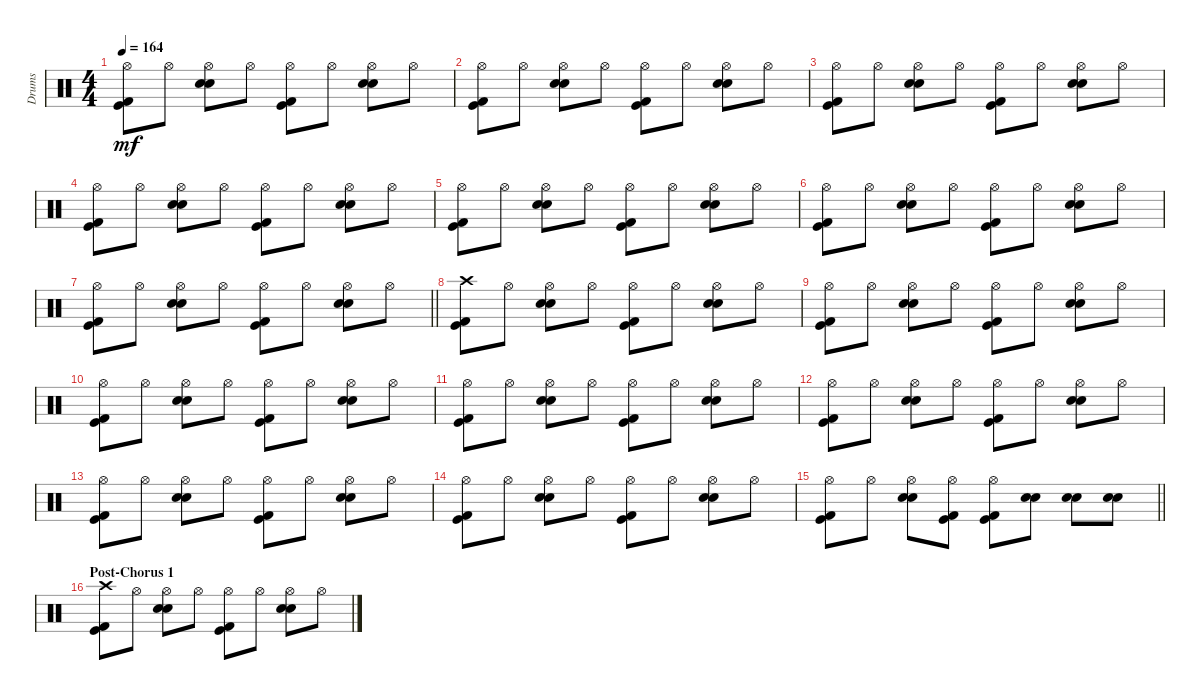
\track ("Drums" "Drums") {instrument percussion}
\staff {score}
\articulation defaults
\ts (4 4)
\tempo 164
\clef neutral
\ks c
("Hi-Hat (open)" "Kick (hit) 2" "Kick (hit)").8{dy mf} "Hi-Hat (open)".8 ("Hi-Hat (open)" "Snare (hit) 2" "Electric Snare (hit)").8 "Hi-Hat (open)".8 ("Hi-Hat (open)" "Kick (hit) 2" "Kick (hit)").8 "Hi-Hat (open)".8 ("Hi-Hat (open)" "Snare (hit) 2" "Electric Snare (hit)").8 "Hi-Hat (open)".8 |
("Hi-Hat (open)" "Kick (hit) 2" "Kick (hit)").8 "Hi-Hat (open)".8 ("Hi-Hat (open)" "Snare (hit) 2" "Electric Snare (hit)").8 "Hi-Hat (open)".8 ("Hi-Hat (open)" "Kick (hit) 2" "Kick (hit)").8 "Hi-Hat (open)".8 ("Hi-Hat (open)" "Snare (hit) 2" "Electric Snare (hit)").8 "Hi-Hat (open)".8 |
("Hi-Hat (open)" "Kick (hit) 2" "Kick (hit)").8 "Hi-Hat (open)".8 ("Hi-Hat (open)" "Snare (hit) 2" "Electric Snare (hit)").8 "Hi-Hat (open)".8 ("Hi-Hat (open)" "Kick (hit) 2" "Kick (hit)").8 "Hi-Hat (open)".8 ("Hi-Hat (open)" "Snare (hit) 2" "Electric Snare (hit)").8 "Hi-Hat (open)".8 |
("Hi-Hat (open)" "Kick (hit) 2" "Kick (hit)").8 "Hi-Hat (open)".8 ("Hi-Hat (open)" "Snare (hit) 2" "Electric Snare (hit)").8 "Hi-Hat (open)".8 ("Hi-Hat (open)" "Kick (hit) 2" "Kick (hit)").8 "Hi-Hat (open)".8 ("Hi-Hat (open)" "Snare (hit) 2" "Electric Snare (hit)").8 "Hi-Hat (open)".8 |
("Hi-Hat (open)" "Kick (hit) 2" "Kick (hit)").8 "Hi-Hat (open)".8 ("Hi-Hat (open)" "Snare (hit) 2" "Electric Snare (hit)").8 "Hi-Hat (open)".8 ("Hi-Hat (open)" "Kick (hit) 2" "Kick (hit)").8 "Hi-Hat (open)".8 ("Hi-Hat (open)" "Snare (hit) 2" "Electric Snare (hit)").8 "Hi-Hat (open)".8 |
("Hi-Hat (open)" "Kick (hit) 2" "Kick (hit)").8 "Hi-Hat (open)".8 ("Hi-Hat (open)" "Snare (hit) 2" "Electric Snare (hit)").8 "Hi-Hat (open)".8 ("Hi-Hat (open)" "Kick (hit) 2" "Kick (hit)").8 "Hi-Hat (open)".8 ("Hi-Hat (open)" "Snare (hit) 2" "Electric Snare (hit)").8 "Hi-Hat (open)".8 |
\barLineRight lightlight
("Hi-Hat (open)" "Kick (hit) 2" "Kick (hit)").8 "Hi-Hat (open)".8 ("Hi-Hat (open)" "Snare (hit) 2" "Electric Snare (hit)").8 "Hi-Hat (open)".8 ("Hi-Hat (open)" "Kick (hit) 2" "Kick (hit)").8 "Hi-Hat (open)".8 ("Hi-Hat (open)" "Snare (hit) 2" "Electric Snare (hit)").8 "Hi-Hat (open)".8 |
("Crash high (hit)" "Kick (hit) 2" "Kick (hit)").8 "Hi-Hat (open)".8 ("Hi-Hat (open)" "Snare (hit) 2" "Electric Snare (hit)").8 "Hi-Hat (open)".8 ("Hi-Hat (open)" "Kick (hit) 2" "Kick (hit)").8 "Hi-Hat (open)".8 ("Hi-Hat (open)" "Snare (hit) 2" "Electric Snare (hit)").8 "Hi-Hat (open)".8 |
("Hi-Hat (open)" "Kick (hit) 2" "Kick (hit)").8 "Hi-Hat (open)".8 ("Hi-Hat (open)" "Snare (hit) 2" "Electric Snare (hit)").8 "Hi-Hat (open)".8 ("Hi-Hat (open)" "Kick (hit) 2" "Kick (hit)").8 "Hi-Hat (open)".8 ("Hi-Hat (open)" "Snare (hit) 2" "Electric Snare (hit)").8 "Hi-Hat (open)".8 |
("Hi-Hat (open)" "Kick (hit) 2" "Kick (hit)").8 "Hi-Hat (open)".8 ("Hi-Hat (open)" "Snare (hit) 2" "Electric Snare (hit)").8 "Hi-Hat (open)".8 ("Hi-Hat (open)" "Kick (hit) 2" "Kick (hit)").8 "Hi-Hat (open)".8 ("Hi-Hat (open)" "Snare (hit) 2" "Electric Snare (hit)").8 "Hi-Hat (open)".8 |
("Hi-Hat (open)" "Kick (hit) 2" "Kick (hit)").8 "Hi-Hat (open)".8 ("Hi-Hat (open)" "Snare (hit) 2" "Electric Snare (hit)").8 "Hi-Hat (open)".8 ("Hi-Hat (open)" "Kick (hit) 2" "Kick (hit)").8 "Hi-Hat (open)".8 ("Hi-Hat (open)" "Snare (hit) 2" "Electric Snare (hit)").8 "Hi-Hat (open)".8 |
("Hi-Hat (open)" "Kick (hit) 2" "Kick (hit)").8 "Hi-Hat (open)".8 ("Hi-Hat (open)" "Snare (hit) 2" "Electric Snare (hit)").8 "Hi-Hat (open)".8 ("Hi-Hat (open)" "Kick (hit) 2" "Kick (hit)").8 "Hi-Hat (open)".8 ("Hi-Hat (open)" "Snare (hit) 2" "Electric Snare (hit)").8 "Hi-Hat (open)".8 |
("Hi-Hat (open)" "Kick (hit) 2" "Kick (hit)").8 "Hi-Hat (open)".8 ("Hi-Hat (open)" "Snare (hit) 2" "Electric Snare (hit)").8 "Hi-Hat (open)".8 ("Hi-Hat (open)" "Kick (hit) 2" "Kick (hit)").8 "Hi-Hat (open)".8 ("Hi-Hat (open)" "Snare (hit) 2" "Electric Snare (hit)").8 "Hi-Hat (open)".8 |
("Hi-Hat (open)" "Kick (hit) 2" "Kick (hit)").8 "Hi-Hat (open)".8 ("Hi-Hat (open)" "Snare (hit) 2" "Electric Snare (hit)").8 "Hi-Hat (open)".8 ("Hi-Hat (open)" "Kick (hit) 2" "Kick (hit)").8 "Hi-Hat (open)".8 ("Hi-Hat (open)" "Snare (hit) 2" "Electric Snare (hit)").8 "Hi-Hat (open)".8 |
\barLineRight lightlight
("Hi-Hat (open)" "Kick (hit) 2" "Kick (hit)").8 "Hi-Hat (open)".8 ("Hi-Hat (open)" "Snare (hit) 2" "Electric Snare (hit)").8 ("Hi-Hat (open)" "Kick (hit) 2" "Kick (hit)").8 ("Hi-Hat (open)" "Kick (hit) 2" "Kick (hit)").8 ("Snare (hit) 2" "Electric Snare (hit)").8 ("Snare (hit) 2" "Electric Snare (hit)").8 ("Snare (hit) 2" "Electric Snare (hit)").8 |
\section ("" "Post-Chorus 1")
("Crash high (hit)" "Kick (hit) 2" "Kick (hit)").8 "Hi-Hat (open)".8 ("Hi-Hat (open)" "Snare (hit) 2" "Electric Snare (hit)").8 "Hi-Hat (open)".8 ("Hi-Hat (open)" "Kick (hit) 2" "Kick (hit)").8 "Hi-Hat (open)".8 ("Hi-Hat (open)" "Snare (hit) 2" "Electric Snare (hit)").8 "Hi-Hat (open)".8
